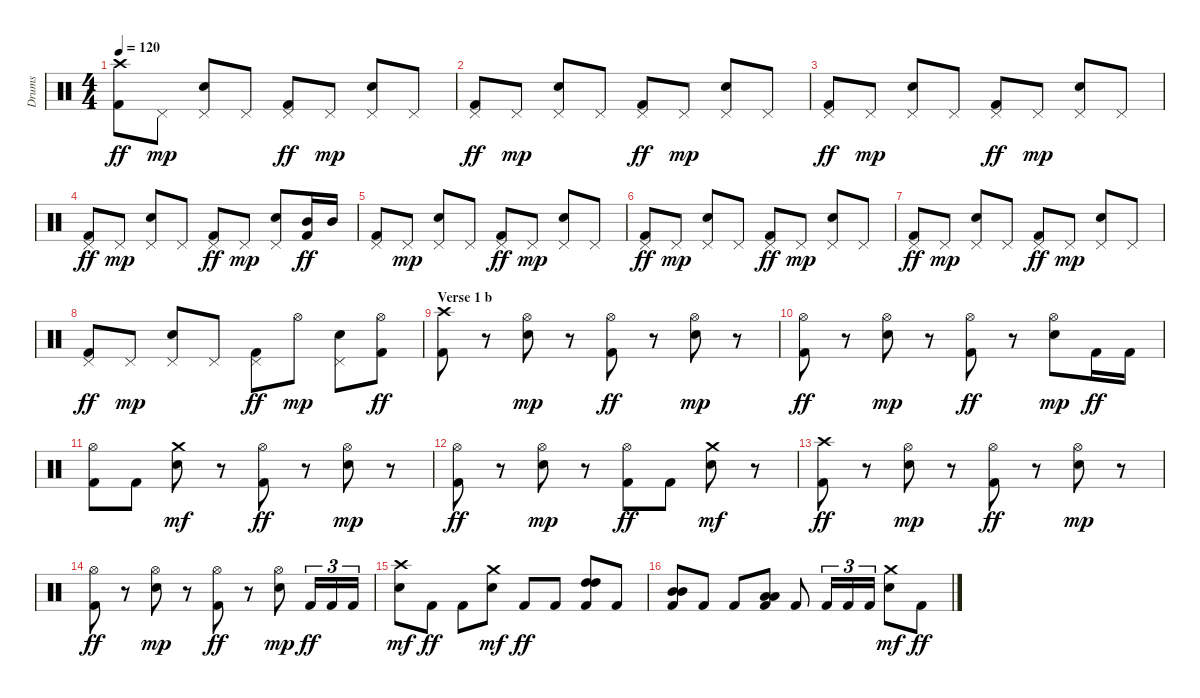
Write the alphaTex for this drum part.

\track ("Drums" "Drums") {instrument percussion}
\staff {score}
\articulation defaults
\ts (4 4)
\tempo 120
\clef neutral
\ks c
("Crash high (hit)" "Kick (hit) 2").8{dy ff} "Pedal Hi-Hat (hit)".8{dy mp} ("Pedal Hi-Hat (hit)" "Electric Snare (hit)").8 "Pedal Hi-Hat (hit)".8 ("Pedal Hi-Hat (hit)" "Kick (hit) 2").8{dy ff} "Pedal Hi-Hat (hit)".8{dy mp} ("Pedal Hi-Hat (hit)" "Electric Snare (hit)").8 "Pedal Hi-Hat (hit)".8 |
("Pedal Hi-Hat (hit)" "Kick (hit) 2").8{dy ff} "Pedal Hi-Hat (hit)".8{dy mp} ("Pedal Hi-Hat (hit)" "Electric Snare (hit)").8 "Pedal Hi-Hat (hit)".8 ("Pedal Hi-Hat (hit)" "Kick (hit) 2").8{dy ff} "Pedal Hi-Hat (hit)".8{dy mp} ("Pedal Hi-Hat (hit)" "Electric Snare (hit)").8 "Pedal Hi-Hat (hit)".8 |
("Pedal Hi-Hat (hit)" "Kick (hit) 2").8{dy ff} "Pedal Hi-Hat (hit)".8{dy mp} ("Pedal Hi-Hat (hit)" "Electric Snare (hit)").8 "Pedal Hi-Hat (hit)".8 ("Pedal Hi-Hat (hit)" "Kick (hit) 2").8{dy ff} "Pedal Hi-Hat (hit)".8{dy mp} ("Pedal Hi-Hat (hit)" "Electric Snare (hit)").8 "Pedal Hi-Hat (hit)".8 |
("Pedal Hi-Hat (hit)" "Kick (hit) 2").8{dy ff} "Pedal Hi-Hat (hit)".8{dy mp} ("Pedal Hi-Hat (hit)" "Electric Snare (hit)").8 "Pedal Hi-Hat (hit)".8 ("Pedal Hi-Hat (hit)" "Kick (hit) 2").8{dy ff} "Pedal Hi-Hat (hit)".8{dy mp} ("Pedal Hi-Hat (hit)" "Electric Snare (hit)").8 ("Mid Tom (hit)" "Kick (hit) 2").16{dy ff} "Mid Tom (hit)".16 |
("Pedal Hi-Hat (hit)" "Kick (hit) 2").8 "Pedal Hi-Hat (hit)".8{dy mp} ("Pedal Hi-Hat (hit)" "Electric Snare (hit)").8 "Pedal Hi-Hat (hit)".8 ("Pedal Hi-Hat (hit)" "Kick (hit) 2").8{dy ff} "Pedal Hi-Hat (hit)".8{dy mp} ("Pedal Hi-Hat (hit)" "Electric Snare (hit)").8 "Pedal Hi-Hat (hit)".8 |
("Pedal Hi-Hat (hit)" "Kick (hit) 2").8{dy ff} "Pedal Hi-Hat (hit)".8{dy mp} ("Pedal Hi-Hat (hit)" "Electric Snare (hit)").8 "Pedal Hi-Hat (hit)".8 ("Pedal Hi-Hat (hit)" "Kick (hit) 2").8{dy ff} "Pedal Hi-Hat (hit)".8{dy mp} ("Pedal Hi-Hat (hit)" "Electric Snare (hit)").8 "Pedal Hi-Hat (hit)".8 |
("Pedal Hi-Hat (hit)" "Kick (hit) 2").8{dy ff} "Pedal Hi-Hat (hit)".8{dy mp} ("Pedal Hi-Hat (hit)" "Electric Snare (hit)").8 "Pedal Hi-Hat (hit)".8 ("Pedal Hi-Hat (hit)" "Kick (hit) 2").8{dy ff} "Pedal Hi-Hat (hit)".8{dy mp} ("Pedal Hi-Hat (hit)" "Electric Snare (hit)").8 "Pedal Hi-Hat (hit)".8 |
("Pedal Hi-Hat (hit)" "Kick (hit) 2").8{dy ff} "Pedal Hi-Hat (hit)".8{dy mp} ("Pedal Hi-Hat (hit)" "Electric Snare (hit)").8 "Pedal Hi-Hat (hit)".8 ("Pedal Hi-Hat (hit)" "Kick (hit) 2").8{dy ff} "Hi-Hat (open)".8{dy mp} ("Pedal Hi-Hat (hit)" "Electric Snare (hit)").8 ("Hi-Hat (open)" "Kick (hit) 2").8{dy ff} |
\section ("" "Verse 1 b")
("Crash high (hit)" "Kick (hit) 2").8 r.8 ("Hi-Hat (open)" "Electric Snare (hit)").8{dy mp} r.8 ("Hi-Hat (open)" "Kick (hit) 2").8{dy ff} r.8 ("Hi-Hat (open)" "Electric Snare (hit)").8{dy mp} r.8 |
("Hi-Hat (open)" "Kick (hit) 2").8{dy ff} r.8 ("Hi-Hat (open)" "Electric Snare (hit)").8{dy mp} r.8 ("Hi-Hat (open)" "Kick (hit) 2").8{dy ff} r.8 ("Hi-Hat (open)" "Electric Snare (hit)").8{dy mp} "Kick (hit) 2".16{dy ff} "Kick (hit) 2".16 |
("Hi-Hat (open)" "Kick (hit) 2").8 "Kick (hit) 2".8 ("Crash medium (hit)" "Electric Snare (hit)").8{dy mf} r.8 ("Hi-Hat (open)" "Kick (hit) 2").8{dy ff} r.8 ("Hi-Hat (open)" "Electric Snare (hit)").8{dy mp} r.8 |
("Hi-Hat (open)" "Kick (hit) 2").8{dy ff} r.8 ("Hi-Hat (open)" "Electric Snare (hit)").8{dy mp} r.8 ("Hi-Hat (open)" "Kick (hit) 2").8{dy ff} "Kick (hit) 2".8 ("Crash medium (hit)" "Electric Snare (hit)").8{dy mf} r.8 |
("Crash high (hit)" "Kick (hit) 2").8{dy ff} r.8 ("Hi-Hat (open)" "Electric Snare (hit)").8{dy mp} r.8 ("Hi-Hat (open)" "Kick (hit) 2").8{dy ff} r.8 ("Hi-Hat (open)" "Electric Snare (hit)").8{dy mp} r.8 |
("Hi-Hat (open)" "Kick (hit) 2").8{dy ff} r.8 ("Hi-Hat (open)" "Electric Snare (hit)").8{dy mp} r.8 ("Hi-Hat (open)" "Kick (hit) 2").8{dy ff} r.8 ("Hi-Hat (open)" "Electric Snare (hit)").8{dy mp} "Kick (hit) 2".16{tu (3 2) dy ff} "Kick (hit) 2".16{tu (3 2)} "Kick (hit) 2".16{tu (3 2)} |
("Crash high (hit)" "Electric Snare (hit)").8{dy mf} "Kick (hit) 2".8{dy ff} "Kick (hit) 2".8 ("Crash medium (hit)" "Electric Snare (hit)").8{dy mf} "Kick (hit) 2".8{dy ff} "Kick (hit) 2".8 ("High Tom (hit)" "High Tom (hit)" "Kick (hit) 2").8 "Kick (hit) 2".8 |
("Mid Tom (hit)" "Mid Tom (hit)" "Kick (hit) 2").8 "Kick (hit) 2".8 "Kick (hit) 2".8 ("Low Tom (hit)" "Low Tom (hit)" "Kick (hit) 2").8 "Kick (hit) 2".8 "Kick (hit) 2".16{tu (3 2)} "Kick (hit) 2".16{tu (3 2)} "Kick (hit) 2".16{tu (3 2)} ("Crash medium (hit)" "Electric Snare (hit)").8{dy mf} "Kick (hit) 2".8{dy ff}
